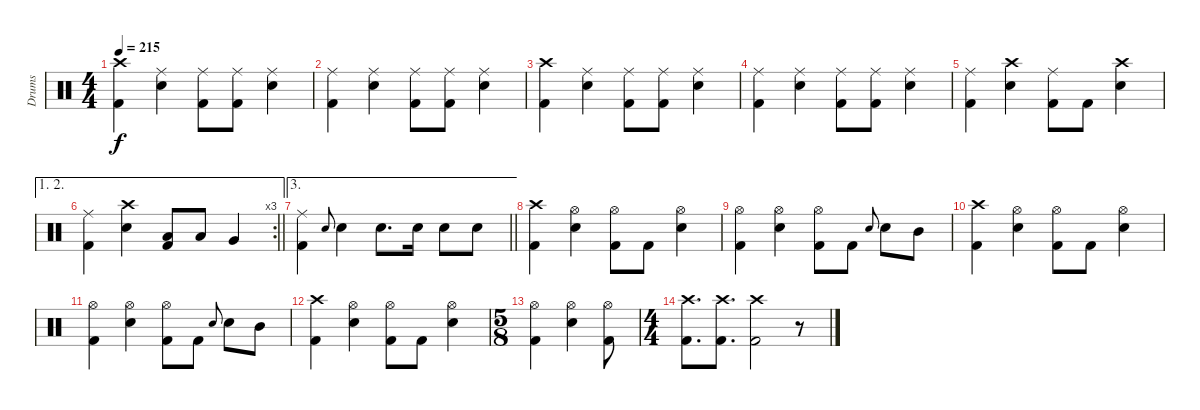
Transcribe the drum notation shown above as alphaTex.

\track ("Drums" "Drums") {instrument percussion}
\staff {score}
\articulation defaults
\ts (4 4)
\tempo 215
\clef neutral
\ks c
("Crash high (hit)" "Kick (hit) 2").4{dy f} ("Ride (middle)" "Snare (hit) 2").4 ("Ride (middle)" "Kick (hit) 2").8 ("Ride (middle)" "Kick (hit) 2").8 ("Ride (middle)" "Snare (hit) 2").4 |
("Ride (middle)" "Kick (hit) 2").4 ("Ride (middle)" "Snare (hit) 2").4 ("Ride (middle)" "Kick (hit) 2").8 ("Ride (middle)" "Kick (hit) 2").8 ("Ride (middle)" "Snare (hit) 2").4 |
("Crash high (hit)" "Kick (hit) 2").4 ("Ride (middle)" "Snare (hit) 2").4 ("Ride (middle)" "Kick (hit) 2").8 ("Ride (middle)" "Kick (hit) 2").8 ("Ride (middle)" "Snare (hit) 2").4 |
("Ride (middle)" "Kick (hit) 2").4 ("Ride (middle)" "Snare (hit) 2").4 ("Ride (middle)" "Kick (hit) 2").8 ("Ride (middle)" "Kick (hit) 2").8 ("Ride (middle)" "Snare (hit) 2").4 |
("Ride (middle)" "Kick (hit) 2").4 ("Crash high (hit)" "Snare (hit) 2").4 ("Ride (middle)" "Kick (hit) 2").8 "Kick (hit) 2".8 ("Crash high (hit)" "Snare (hit) 2").4 |
\ae (1 2)
\rc 3
\barLineRight lightlight
("Ride (middle)" "Kick (hit) 2").4 ("Crash high (hit)" "Snare (hit) 2").4 ("Low Tom (hit)" "Kick (hit) 2").8 "Low Tom (hit)".8 "Very Low Tom (hit)".4 |
\ae 3
\barLineRight lightlight
("Ride (middle)" "Kick (hit) 2").4 "Snare (hit) 2".8{gr onbeat} "Snare (hit) 2".4 "Snare (hit) 2".8{d} "Snare (hit) 2".16 "Snare (hit) 2".8 "Snare (hit) 2".8 |
("Crash high (hit)" "Kick (hit) 2").4 ("Hi-Hat (open)" "Snare (hit) 2").4 ("Hi-Hat (open)" "Kick (hit) 2").8 "Kick (hit) 2".8 ("Hi-Hat (open)" "Snare (hit) 2").4 |
("Hi-Hat (open)" "Kick (hit) 2").4 ("Hi-Hat (open)" "Snare (hit) 2").4 ("Hi-Hat (open)" "Kick (hit) 2").8 "Kick (hit) 2".8 "Snare (hit) 2".8{gr onbeat} "Snare (hit) 2".8 "Mid Tom (hit)".8 |
("Crash high (hit)" "Kick (hit) 2").4 ("Hi-Hat (open)" "Snare (hit) 2").4 ("Hi-Hat (open)" "Kick (hit) 2").8 "Kick (hit) 2".8 ("Hi-Hat (open)" "Snare (hit) 2").4 |
("Hi-Hat (open)" "Kick (hit) 2").4 ("Hi-Hat (open)" "Snare (hit) 2").4 ("Hi-Hat (open)" "Kick (hit) 2").8 "Kick (hit) 2".8 "Snare (hit) 2".8{gr onbeat} "Snare (hit) 2".8 "Mid Tom (hit)".8 |
("Crash high (hit)" "Kick (hit) 2").4 ("Hi-Hat (open)" "Snare (hit) 2").4 ("Hi-Hat (open)" "Kick (hit) 2").8 "Kick (hit) 2".8 ("Hi-Hat (open)" "Snare (hit) 2").4 |
\ts (5 8)
("Hi-Hat (open)" "Kick (hit) 2").4 ("Hi-Hat (open)" "Snare (hit) 2").4 ("Hi-Hat (open)" "Kick (hit) 2").8 |
\ts (4 4)
("Crash high (hit)" "Kick (hit) 2").8{d} ("Crash high (hit)" "Kick (hit) 2").8{d} ("Crash high (hit)" "Kick (hit) 2").2 r.8
